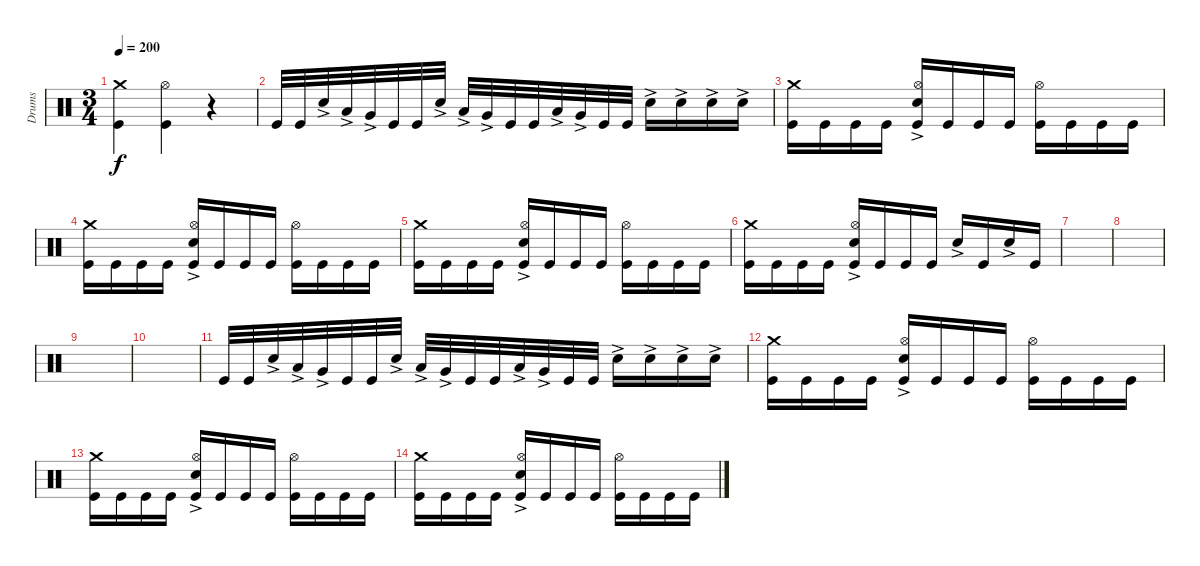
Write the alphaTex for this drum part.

\track ("Drums" "Drums") {instrument percussion}
\staff {score}
\articulation defaults
\ts (3 4)
\tempo 200
\clef neutral
\ks c
("Kick (hit)" "Crash medium (hit)").4{dy f} ("Hi-Hat (open)" "Kick (hit)").4 r.4 |
"Kick (hit)".32 "Kick (hit)".32 "Snare (hit) 2"{ac}.32 "Low Tom (hit)"{ac}.32 "Very Low Tom (hit)"{ac}.32 "Kick (hit)".32 "Kick (hit)".32 "Snare (hit) 2"{ac}.32 "Low Tom (hit)"{ac}.32 "Very Low Tom (hit)"{ac}.32 "Kick (hit)".32 "Kick (hit)".32 "Low Tom (hit)"{ac}.32 "Very Low Tom (hit)"{ac}.32 "Kick (hit)".32 "Kick (hit)".32 "Snare (hit) 2"{ac}.16 "Snare (hit) 2"{ac}.16 "Snare (hit) 2"{ac}.16 "Snare (hit) 2"{ac}.16 |
("Kick (hit)" "Crash medium (hit)").16 "Kick (hit)".16 "Kick (hit)".16 "Kick (hit)".16 ("Kick (hit)" "Hi-Hat (open)" "Snare (hit) 2"{ac}).16 "Kick (hit)".16 "Kick (hit)".16 "Kick (hit)".16 ("Kick (hit)" "Hi-Hat (open)").16 "Kick (hit)".16 "Kick (hit)".16 "Kick (hit)".16 |
("Kick (hit)" "Crash medium (hit)").16 "Kick (hit)".16 "Kick (hit)".16 "Kick (hit)".16 ("Kick (hit)" "Hi-Hat (open)" "Snare (hit) 2"{ac}).16 "Kick (hit)".16 "Kick (hit)".16 "Kick (hit)".16 ("Kick (hit)" "Hi-Hat (open)").16 "Kick (hit)".16 "Kick (hit)".16 "Kick (hit)".16 |
("Kick (hit)" "Crash medium (hit)").16 "Kick (hit)".16 "Kick (hit)".16 "Kick (hit)".16 ("Kick (hit)" "Hi-Hat (open)" "Snare (hit) 2"{ac}).16 "Kick (hit)".16 "Kick (hit)".16 "Kick (hit)".16 ("Kick (hit)" "Hi-Hat (open)").16 "Kick (hit)".16 "Kick (hit)".16 "Kick (hit)".16 |
("Kick (hit)" "Crash medium (hit)").16 "Kick (hit)".16 "Kick (hit)".16 "Kick (hit)".16 ("Kick (hit)" "Hi-Hat (open)" "Snare (hit) 2"{ac}).16 "Kick (hit)".16 "Kick (hit)".16 "Kick (hit)".16 "Snare (hit) 2"{ac}.16 "Kick (hit)".16 "Snare (hit) 2"{ac}.16 "Kick (hit)".16 |
|
|
|
|
"Kick (hit)".32 "Kick (hit)".32 "Snare (hit) 2"{ac}.32 "Low Tom (hit)"{ac}.32 "Very Low Tom (hit)"{ac}.32 "Kick (hit)".32 "Kick (hit)".32 "Snare (hit) 2"{ac}.32 "Low Tom (hit)"{ac}.32 "Very Low Tom (hit)"{ac}.32 "Kick (hit)".32 "Kick (hit)".32 "Low Tom (hit)"{ac}.32 "Very Low Tom (hit)"{ac}.32 "Kick (hit)".32 "Kick (hit)".32 "Snare (hit) 2"{ac}.16 "Snare (hit) 2"{ac}.16 "Snare (hit) 2"{ac}.16 "Snare (hit) 2"{ac}.16 |
("Kick (hit)" "Crash medium (hit)").16 "Kick (hit)".16 "Kick (hit)".16 "Kick (hit)".16 ("Kick (hit)" "Hi-Hat (open)" "Snare (hit) 2"{ac}).16 "Kick (hit)".16 "Kick (hit)".16 "Kick (hit)".16 ("Kick (hit)" "Hi-Hat (open)").16 "Kick (hit)".16 "Kick (hit)".16 "Kick (hit)".16 |
("Kick (hit)" "Crash medium (hit)").16 "Kick (hit)".16 "Kick (hit)".16 "Kick (hit)".16 ("Kick (hit)" "Hi-Hat (open)" "Snare (hit) 2"{ac}).16 "Kick (hit)".16 "Kick (hit)".16 "Kick (hit)".16 ("Kick (hit)" "Hi-Hat (open)").16 "Kick (hit)".16 "Kick (hit)".16 "Kick (hit)".16 |
("Kick (hit)" "Crash medium (hit)").16 "Kick (hit)".16 "Kick (hit)".16 "Kick (hit)".16 ("Kick (hit)" "Hi-Hat (open)" "Snare (hit) 2"{ac}).16 "Kick (hit)".16 "Kick (hit)".16 "Kick (hit)".16 ("Kick (hit)" "Hi-Hat (open)").16 "Kick (hit)".16 "Kick (hit)".16 "Kick (hit)".16
